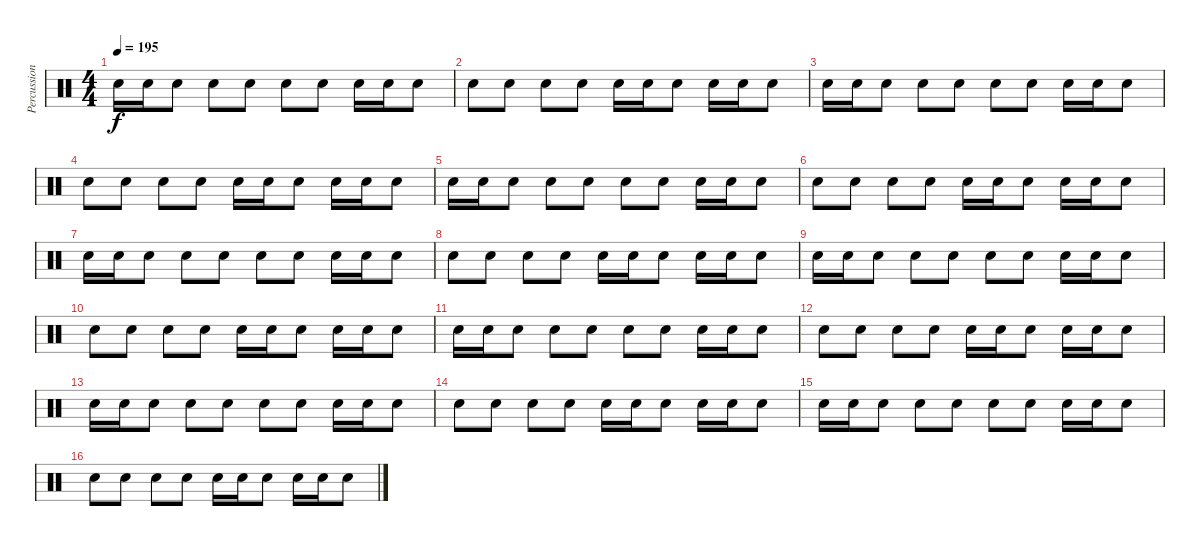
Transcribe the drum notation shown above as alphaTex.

\track ("Percussion" "Percussion") {instrument percussion}
\staff {score}
\articulation defaults
\ts (4 4)
\tempo 195
\clef neutral
\ks c "Electric Snare (hit)".16{dy f} "Electric Snare (hit)".16 "Electric Snare (hit)".8 "Electric Snare (hit)".8 "Electric Snare (hit)".8 "Electric Snare (hit)".8 "Electric Snare (hit)".8 "Electric Snare (hit)".16 "Electric Snare (hit)".16 "Electric Snare (hit)".8
|
"Electric Snare (hit)".8 "Electric Snare (hit)".8 "Electric Snare (hit)".8 "Electric Snare (hit)".8 "Electric Snare (hit)".16 "Electric Snare (hit)".16 "Electric Snare (hit)".8 "Electric Snare (hit)".16 "Electric Snare (hit)".16 "Electric Snare (hit)".8 |
"Electric Snare (hit)".16 "Electric Snare (hit)".16 "Electric Snare (hit)".8 "Electric Snare (hit)".8 "Electric Snare (hit)".8 "Electric Snare (hit)".8 "Electric Snare (hit)".8 "Electric Snare (hit)".16 "Electric Snare (hit)".16 "Electric Snare (hit)".8 |
"Electric Snare (hit)".8 "Electric Snare (hit)".8 "Electric Snare (hit)".8 "Electric Snare (hit)".8 "Electric Snare (hit)".16 "Electric Snare (hit)".16 "Electric Snare (hit)".8 "Electric Snare (hit)".16 "Electric Snare (hit)".16 "Electric Snare (hit)".8 |
"Electric Snare (hit)".16 "Electric Snare (hit)".16 "Electric Snare (hit)".8 "Electric Snare (hit)".8 "Electric Snare (hit)".8 "Electric Snare (hit)".8 "Electric Snare (hit)".8 "Electric Snare (hit)".16 "Electric Snare (hit)".16 "Electric Snare (hit)".8 |
"Electric Snare (hit)".8 "Electric Snare (hit)".8 "Electric Snare (hit)".8 "Electric Snare (hit)".8 "Electric Snare (hit)".16 "Electric Snare (hit)".16 "Electric Snare (hit)".8 "Electric Snare (hit)".16 "Electric Snare (hit)".16 "Electric Snare (hit)".8 |
"Electric Snare (hit)".16 "Electric Snare (hit)".16 "Electric Snare (hit)".8 "Electric Snare (hit)".8 "Electric Snare (hit)".8 "Electric Snare (hit)".8 "Electric Snare (hit)".8 "Electric Snare (hit)".16 "Electric Snare (hit)".16 "Electric Snare (hit)".8 |
"Electric Snare (hit)".8 "Electric Snare (hit)".8 "Electric Snare (hit)".8 "Electric Snare (hit)".8 "Electric Snare (hit)".16 "Electric Snare (hit)".16 "Electric Snare (hit)".8 "Electric Snare (hit)".16 "Electric Snare (hit)".16 "Electric Snare (hit)".8 |
"Electric Snare (hit)".16 "Electric Snare (hit)".16 "Electric Snare (hit)".8 "Electric Snare (hit)".8 "Electric Snare (hit)".8 "Electric Snare (hit)".8 "Electric Snare (hit)".8 "Electric Snare (hit)".16 "Electric Snare (hit)".16 "Electric Snare (hit)".8 |
"Electric Snare (hit)".8 "Electric Snare (hit)".8 "Electric Snare (hit)".8 "Electric Snare (hit)".8 "Electric Snare (hit)".16 "Electric Snare (hit)".16 "Electric Snare (hit)".8 "Electric Snare (hit)".16 "Electric Snare (hit)".16 "Electric Snare (hit)".8 |
"Electric Snare (hit)".16 "Electric Snare (hit)".16 "Electric Snare (hit)".8 "Electric Snare (hit)".8 "Electric Snare (hit)".8 "Electric Snare (hit)".8 "Electric Snare (hit)".8 "Electric Snare (hit)".16 "Electric Snare (hit)".16 "Electric Snare (hit)".8 |
"Electric Snare (hit)".8 "Electric Snare (hit)".8 "Electric Snare (hit)".8 "Electric Snare (hit)".8 "Electric Snare (hit)".16 "Electric Snare (hit)".16 "Electric Snare (hit)".8 "Electric Snare (hit)".16 "Electric Snare (hit)".16 "Electric Snare (hit)".8 |
"Electric Snare (hit)".16 "Electric Snare (hit)".16 "Electric Snare (hit)".8 "Electric Snare (hit)".8 "Electric Snare (hit)".8 "Electric Snare (hit)".8 "Electric Snare (hit)".8 "Electric Snare (hit)".16 "Electric Snare (hit)".16 "Electric Snare (hit)".8 |
"Electric Snare (hit)".8 "Electric Snare (hit)".8 "Electric Snare (hit)".8 "Electric Snare (hit)".8 "Electric Snare (hit)".16 "Electric Snare (hit)".16 "Electric Snare (hit)".8 "Electric Snare (hit)".16 "Electric Snare (hit)".16 "Electric Snare (hit)".8 |
"Electric Snare (hit)".16 "Electric Snare (hit)".16 "Electric Snare (hit)".8 "Electric Snare (hit)".8 "Electric Snare (hit)".8 "Electric Snare (hit)".8 "Electric Snare (hit)".8 "Electric Snare (hit)".16 "Electric Snare (hit)".16 "Electric Snare (hit)".8 |
"Electric Snare (hit)".8 "Electric Snare (hit)".8 "Electric Snare (hit)".8 "Electric Snare (hit)".8 "Electric Snare (hit)".16 "Electric Snare (hit)".16 "Electric Snare (hit)".8 "Electric Snare (hit)".16 "Electric Snare (hit)".16 "Electric Snare (hit)".8
